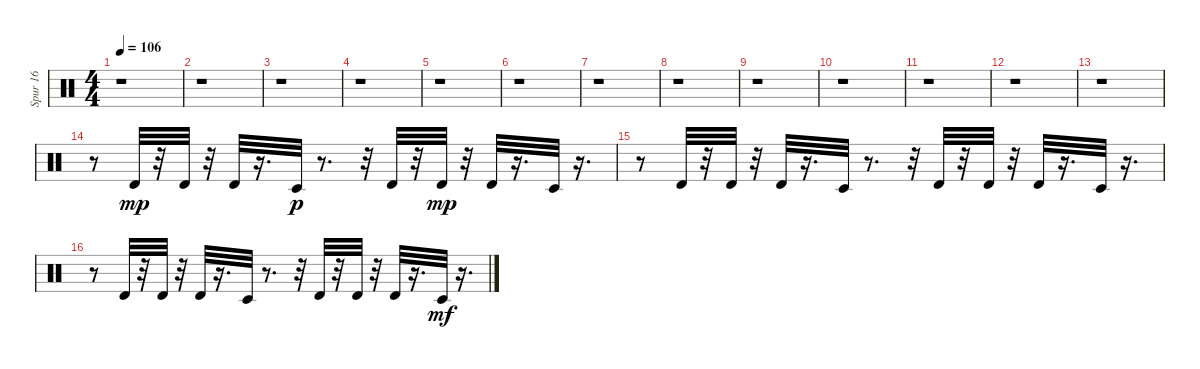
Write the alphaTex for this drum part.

\track ("Spur 16" "Spur 16") {instrument percussion}
\staff {score}
\articulation defaults
\ts (4 4)
\tempo 106
\clef neutral
\ks c
r.1{dy mp} |
r.1 |
r.1 |
r.1 |
r.1 |
r.1 |
r.1 |
r.1 |
r.1 |
r.1 |
r.1 |
r.1 |
r.1 |
r.8 "Timbale high (hit)".32 r.32 "Timbale high (hit)".32 r.32 "Timbale high (hit)".32 r.16{d} "Timbale low (hit)".32{dy p} r.8{d} r.32 "Timbale high (hit)".32 r.32 "Timbale high (hit)".32{dy mp} r.32 "Timbale high (hit)".32 r.16{d} "Timbale low (hit)".32 r.16{d} |
r.8 "Timbale high (hit)".32 r.32 "Timbale high (hit)".32 r.32 "Timbale high (hit)".32 r.16{d} "Timbale low (hit)".32 r.8{d} r.32 "Timbale high (hit)".32 r.32 "Timbale high (hit)".32 r.32 "Timbale high (hit)".32 r.16{d} "Timbale low (hit)".32 r.16{d} |
r.8 "Timbale high (hit)".32 r.32 "Timbale high (hit)".32 r.32 "Timbale high (hit)".32 r.16{d} "Timbale low (hit)".32 r.8{d} r.32 "Timbale high (hit)".32 r.32 "Timbale high (hit)".32 r.32 "Timbale high (hit)".32 r.16{d} "Timbale low (hit)".32{dy mf} r.16{d}
